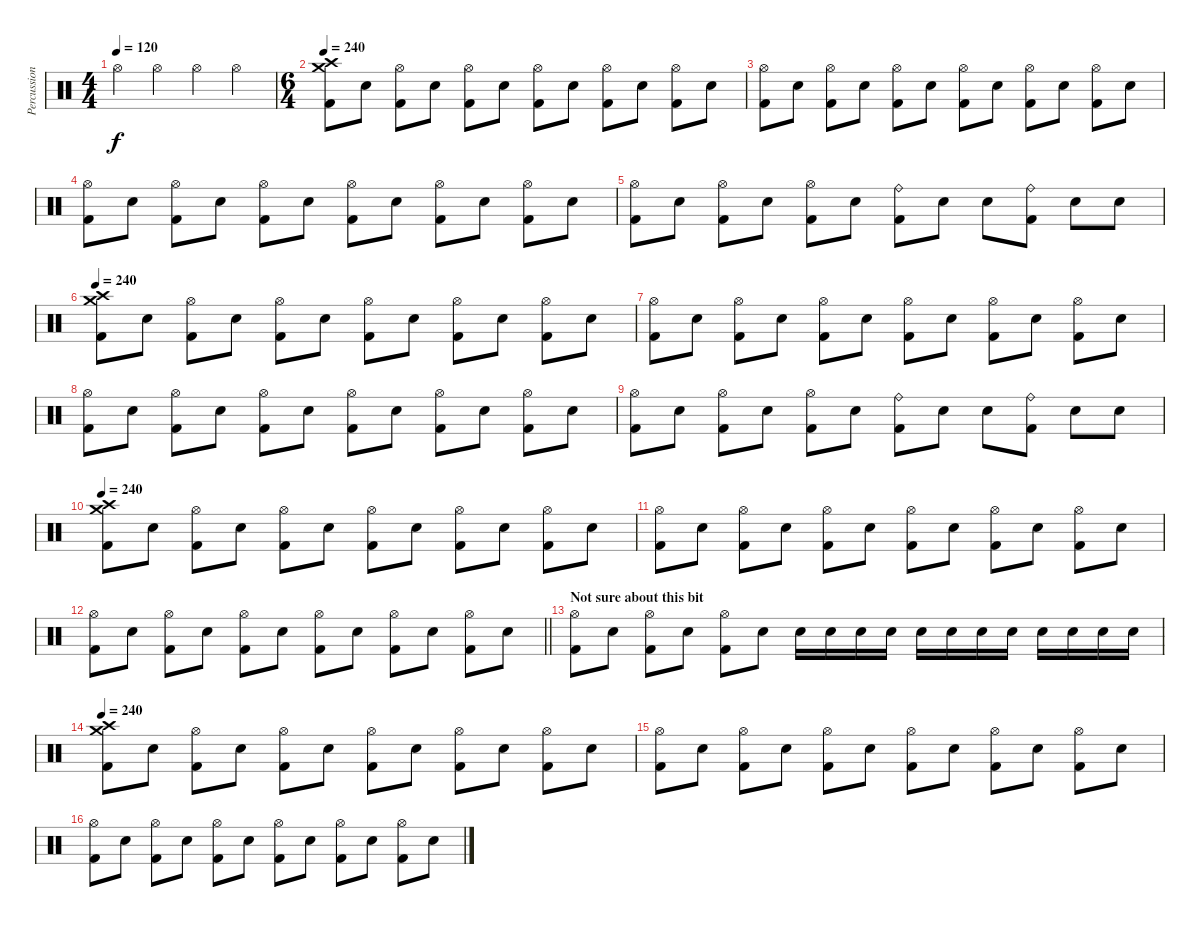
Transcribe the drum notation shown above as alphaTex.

\track ("Percussion" "Percussion") {instrument percussion}
\staff {score}
\articulation defaults
\ts (4 4)
\tempo 120
\tempo 155
\tempo 120
\clef neutral
\ks c "Hi-Hat (open)".4{dy f} "Hi-Hat (open)".4 "Hi-Hat (open)".4 "Hi-Hat (open)".4
|
\ts (6 4)
\tempo 240
("Crash high (hit)" "Crash medium (hit)" "Kick (hit) 2").8 "Electric Snare (hit)".8 ("Hi-Hat (open)" "Kick (hit) 2").8 "Electric Snare (hit)".8 ("Hi-Hat (open)" "Kick (hit) 2").8 "Electric Snare (hit)".8 ("Hi-Hat (open)" "Kick (hit) 2").8 "Electric Snare (hit)".8 ("Hi-Hat (open)" "Kick (hit) 2").8 "Electric Snare (hit)".8 ("Hi-Hat (open)" "Kick (hit) 2").8 "Electric Snare (hit)".8 |
("Hi-Hat (open)" "Kick (hit) 2").8 "Electric Snare (hit)".8 ("Hi-Hat (open)" "Kick (hit) 2").8 "Electric Snare (hit)".8 ("Hi-Hat (open)" "Kick (hit) 2").8 "Electric Snare (hit)".8 ("Hi-Hat (open)" "Kick (hit) 2").8 "Electric Snare (hit)".8 ("Hi-Hat (open)" "Kick (hit) 2").8 "Electric Snare (hit)".8 ("Hi-Hat (open)" "Kick (hit) 2").8 "Electric Snare (hit)".8 |
("Hi-Hat (open)" "Kick (hit) 2").8 "Electric Snare (hit)".8 ("Hi-Hat (open)" "Kick (hit) 2").8 "Electric Snare (hit)".8 ("Hi-Hat (open)" "Kick (hit) 2").8 "Electric Snare (hit)".8 ("Hi-Hat (open)" "Kick (hit) 2").8 "Electric Snare (hit)".8 ("Hi-Hat (open)" "Kick (hit) 2").8 "Electric Snare (hit)".8 ("Hi-Hat (open)" "Kick (hit) 2").8 "Electric Snare (hit)".8 |
("Hi-Hat (open)" "Kick (hit) 2").8 "Electric Snare (hit)".8 ("Hi-Hat (open)" "Kick (hit) 2").8 "Electric Snare (hit)".8 ("Hi-Hat (open)" "Kick (hit) 2").8 "Electric Snare (hit)".8 ("Ride (bell)" "Kick (hit) 2").8 "Electric Snare (hit)".8 "Electric Snare (hit)".8 ("Ride (bell)" "Kick (hit) 2").8 "Electric Snare (hit)".8 "Electric Snare (hit)".8 |
\tempo 240
("Crash high (hit)" "Crash medium (hit)" "Kick (hit) 2").8 "Electric Snare (hit)".8 ("Hi-Hat (open)" "Kick (hit) 2").8 "Electric Snare (hit)".8 ("Hi-Hat (open)" "Kick (hit) 2").8 "Electric Snare (hit)".8 ("Hi-Hat (open)" "Kick (hit) 2").8 "Electric Snare (hit)".8 ("Hi-Hat (open)" "Kick (hit) 2").8 "Electric Snare (hit)".8 ("Hi-Hat (open)" "Kick (hit) 2").8 "Electric Snare (hit)".8 |
("Hi-Hat (open)" "Kick (hit) 2").8 "Electric Snare (hit)".8 ("Hi-Hat (open)" "Kick (hit) 2").8 "Electric Snare (hit)".8 ("Hi-Hat (open)" "Kick (hit) 2").8 "Electric Snare (hit)".8 ("Hi-Hat (open)" "Kick (hit) 2").8 "Electric Snare (hit)".8 ("Hi-Hat (open)" "Kick (hit) 2").8 "Electric Snare (hit)".8 ("Hi-Hat (open)" "Kick (hit) 2").8 "Electric Snare (hit)".8 |
("Hi-Hat (open)" "Kick (hit) 2").8 "Electric Snare (hit)".8 ("Hi-Hat (open)" "Kick (hit) 2").8 "Electric Snare (hit)".8 ("Hi-Hat (open)" "Kick (hit) 2").8 "Electric Snare (hit)".8 ("Hi-Hat (open)" "Kick (hit) 2").8 "Electric Snare (hit)".8 ("Hi-Hat (open)" "Kick (hit) 2").8 "Electric Snare (hit)".8 ("Hi-Hat (open)" "Kick (hit) 2").8 "Electric Snare (hit)".8 |
("Hi-Hat (open)" "Kick (hit) 2").8 "Electric Snare (hit)".8 ("Hi-Hat (open)" "Kick (hit) 2").8 "Electric Snare (hit)".8 ("Hi-Hat (open)" "Kick (hit) 2").8 "Electric Snare (hit)".8 ("Ride (bell)" "Kick (hit) 2").8 "Electric Snare (hit)".8 "Electric Snare (hit)".8 ("Ride (bell)" "Kick (hit) 2").8 "Electric Snare (hit)".8 "Electric Snare (hit)".8 |
\tempo 240
("Crash high (hit)" "Crash medium (hit)" "Kick (hit) 2").8 "Electric Snare (hit)".8 ("Hi-Hat (open)" "Kick (hit) 2").8 "Electric Snare (hit)".8 ("Hi-Hat (open)" "Kick (hit) 2").8 "Electric Snare (hit)".8 ("Hi-Hat (open)" "Kick (hit) 2").8 "Electric Snare (hit)".8 ("Hi-Hat (open)" "Kick (hit) 2").8 "Electric Snare (hit)".8 ("Hi-Hat (open)" "Kick (hit) 2").8 "Electric Snare (hit)".8 |
("Hi-Hat (open)" "Kick (hit) 2").8 "Electric Snare (hit)".8 ("Hi-Hat (open)" "Kick (hit) 2").8 "Electric Snare (hit)".8 ("Hi-Hat (open)" "Kick (hit) 2").8 "Electric Snare (hit)".8 ("Hi-Hat (open)" "Kick (hit) 2").8 "Electric Snare (hit)".8 ("Hi-Hat (open)" "Kick (hit) 2").8 "Electric Snare (hit)".8 ("Hi-Hat (open)" "Kick (hit) 2").8 "Electric Snare (hit)".8 |
\barLineRight lightlight
("Hi-Hat (open)" "Kick (hit) 2").8 "Electric Snare (hit)".8 ("Hi-Hat (open)" "Kick (hit) 2").8 "Electric Snare (hit)".8 ("Hi-Hat (open)" "Kick (hit) 2").8 "Electric Snare (hit)".8 ("Hi-Hat (open)" "Kick (hit) 2").8 "Electric Snare (hit)".8 ("Hi-Hat (open)" "Kick (hit) 2").8 "Electric Snare (hit)".8 ("Hi-Hat (open)" "Kick (hit) 2").8 "Electric Snare (hit)".8 |
\section ("" "Not sure about this bit")
("Hi-Hat (open)" "Kick (hit) 2").8 "Electric Snare (hit)".8 ("Hi-Hat (open)" "Kick (hit) 2").8 "Electric Snare (hit)".8 ("Hi-Hat (open)" "Kick (hit) 2").8 "Electric Snare (hit)".8 "Electric Snare (hit)".16 "Electric Snare (hit)".16 "Electric Snare (hit)".16 "Electric Snare (hit)".16 "Electric Snare (hit)".16 "Electric Snare (hit)".16 "Electric Snare (hit)".16 "Electric Snare (hit)".16 "Electric Snare (hit)".16 "Electric Snare (hit)".16 "Electric Snare (hit)".16 "Electric Snare (hit)".16 |
\tempo 240
("Crash high (hit)" "Crash medium (hit)" "Kick (hit) 2").8 "Electric Snare (hit)".8 ("Hi-Hat (open)" "Kick (hit) 2").8 "Electric Snare (hit)".8 ("Hi-Hat (open)" "Kick (hit) 2").8 "Electric Snare (hit)".8 ("Hi-Hat (open)" "Kick (hit) 2").8 "Electric Snare (hit)".8 ("Hi-Hat (open)" "Kick (hit) 2").8 "Electric Snare (hit)".8 ("Hi-Hat (open)" "Kick (hit) 2").8 "Electric Snare (hit)".8 |
("Hi-Hat (open)" "Kick (hit) 2").8 "Electric Snare (hit)".8 ("Hi-Hat (open)" "Kick (hit) 2").8 "Electric Snare (hit)".8 ("Hi-Hat (open)" "Kick (hit) 2").8 "Electric Snare (hit)".8 ("Hi-Hat (open)" "Kick (hit) 2").8 "Electric Snare (hit)".8 ("Hi-Hat (open)" "Kick (hit) 2").8 "Electric Snare (hit)".8 ("Hi-Hat (open)" "Kick (hit) 2").8 "Electric Snare (hit)".8 |
("Hi-Hat (open)" "Kick (hit) 2").8 "Electric Snare (hit)".8 ("Hi-Hat (open)" "Kick (hit) 2").8 "Electric Snare (hit)".8 ("Hi-Hat (open)" "Kick (hit) 2").8 "Electric Snare (hit)".8 ("Hi-Hat (open)" "Kick (hit) 2").8 "Electric Snare (hit)".8 ("Hi-Hat (open)" "Kick (hit) 2").8 "Electric Snare (hit)".8 ("Hi-Hat (open)" "Kick (hit) 2").8 "Electric Snare (hit)".8
